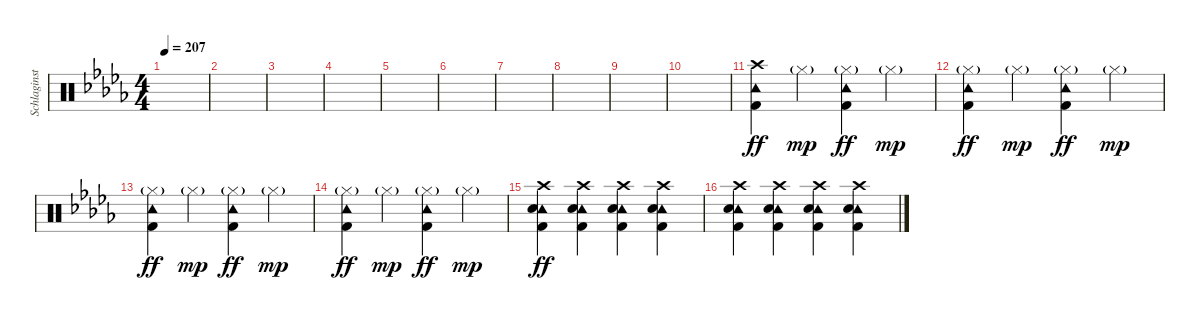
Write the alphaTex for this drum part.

\track ("Schlaginstrumente - Auswahl" "Schlaginst") {instrument percussion}
\staff {score}
\articulation defaults
\ts (4 4)
\tempo 207
\clef neutral
\ks bbminor
|
|
|
|
|
|
|
|
|
|
("Crash high (hit)" "Tambourine (hit)" "Kick (hit) 2").4{dy ff} "Hi-Hat (closed)"{g}.4{dy mp} ("Hi-Hat (closed)"{g} "Tambourine (hit)" "Kick (hit) 2").4{dy ff} "Hi-Hat (closed)"{g}.4{dy mp} |
("Hi-Hat (closed)"{g} "Tambourine (hit)" "Kick (hit) 2").4{dy ff} "Hi-Hat (closed)"{g}.4{dy mp} ("Hi-Hat (closed)"{g} "Tambourine (hit)" "Kick (hit) 2").4{dy ff} "Hi-Hat (closed)"{g}.4{dy mp} |
("Hi-Hat (closed)"{g} "Tambourine (hit)" "Kick (hit) 2").4{dy ff} "Hi-Hat (closed)"{g}.4{dy mp} ("Hi-Hat (closed)"{g} "Tambourine (hit)" "Kick (hit) 2").4{dy ff} "Hi-Hat (closed)"{g}.4{dy mp} |
("Hi-Hat (closed)"{g} "Tambourine (hit)" "Kick (hit) 2").4{dy ff} "Hi-Hat (closed)"{g}.4{dy mp} ("Hi-Hat (closed)"{g} "Tambourine (hit)" "Kick (hit) 2").4{dy ff} "Hi-Hat (closed)"{g}.4{dy mp} |
("Crash high (hit)" "Tambourine (hit)" "Snare (hit) 2" "Kick (hit) 2").4{dy ff} ("Crash high (hit)" "Tambourine (hit)" "Snare (hit) 2" "Kick (hit) 2").4 ("Crash high (hit)" "Tambourine (hit)" "Snare (hit) 2" "Kick (hit) 2").4 ("Crash high (hit)" "Tambourine (hit)" "Snare (hit) 2" "Kick (hit) 2").4 |
("Crash high (hit)" "Tambourine (hit)" "Snare (hit) 2" "Kick (hit) 2").4 ("Crash high (hit)" "Tambourine (hit)" "Snare (hit) 2" "Kick (hit) 2").4 ("Crash high (hit)" "Tambourine (hit)" "Snare (hit) 2" "Kick (hit) 2").4 ("Crash high (hit)" "Tambourine (hit)" "Snare (hit) 2" "Kick (hit) 2").4
